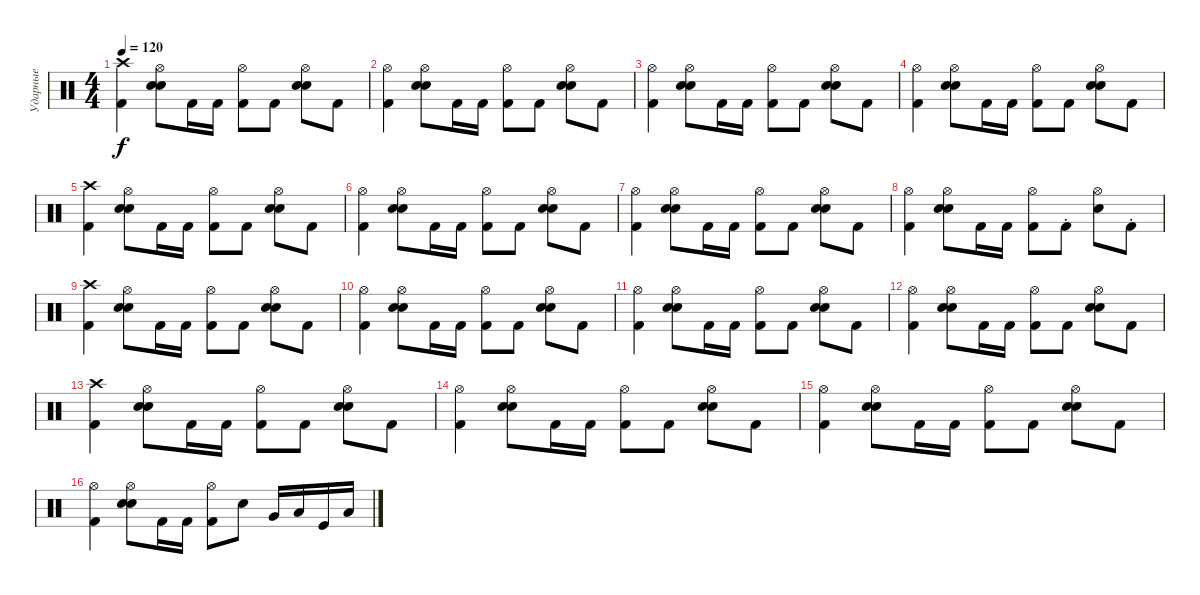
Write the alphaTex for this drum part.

\track ("Ударные" "Ударные") {instrument percussion}
\staff {score}
\articulation defaults
\ts (4 4)
\tempo 120
\clef neutral
\ks c
("Crash high (hit)" "Kick (hit) 2").4{dy f} ("Hi-Hat (open)" "Electric Snare (hit)" "Electric Snare (hit)").8 "Kick (hit) 2".16 "Kick (hit) 2".16 ("Kick (hit) 2" "Hi-Hat (open)").8 "Kick (hit) 2".8 ("Electric Snare (hit)" "Electric Snare (hit)" "Hi-Hat (open)").8 "Kick (hit) 2".8 |
("Hi-Hat (open)" "Kick (hit) 2").4 ("Hi-Hat (open)" "Electric Snare (hit)" "Electric Snare (hit)").8 "Kick (hit) 2".16 "Kick (hit) 2".16 ("Kick (hit) 2" "Hi-Hat (open)").8 "Kick (hit) 2".8 ("Electric Snare (hit)" "Electric Snare (hit)" "Hi-Hat (open)").8 "Kick (hit) 2".8 |
("Hi-Hat (open)" "Kick (hit) 2").4 ("Hi-Hat (open)" "Electric Snare (hit)" "Electric Snare (hit)").8 "Kick (hit) 2".16 "Kick (hit) 2".16 ("Kick (hit) 2" "Hi-Hat (open)").8 "Kick (hit) 2".8 ("Electric Snare (hit)" "Electric Snare (hit)" "Hi-Hat (open)").8 "Kick (hit) 2".8 |
("Hi-Hat (open)" "Kick (hit) 2").4 ("Hi-Hat (open)" "Electric Snare (hit)" "Electric Snare (hit)").8 "Kick (hit) 2".16 "Kick (hit) 2".16 ("Kick (hit) 2" "Hi-Hat (open)").8 "Kick (hit) 2".8 ("Electric Snare (hit)" "Electric Snare (hit)" "Hi-Hat (open)").8 "Kick (hit) 2".8 |
("Crash high (hit)" "Kick (hit) 2").4 ("Hi-Hat (open)" "Electric Snare (hit)" "Electric Snare (hit)").8 "Kick (hit) 2".16 "Kick (hit) 2".16 ("Kick (hit) 2" "Hi-Hat (open)").8 "Kick (hit) 2".8 ("Electric Snare (hit)" "Electric Snare (hit)" "Hi-Hat (open)").8 "Kick (hit) 2".8 |
("Hi-Hat (open)" "Kick (hit) 2").4 ("Hi-Hat (open)" "Electric Snare (hit)" "Electric Snare (hit)").8 "Kick (hit) 2".16 "Kick (hit) 2".16 ("Kick (hit) 2" "Hi-Hat (open)").8 "Kick (hit) 2".8 ("Electric Snare (hit)" "Electric Snare (hit)" "Hi-Hat (open)").8 "Kick (hit) 2".8 |
("Hi-Hat (open)" "Kick (hit) 2").4 ("Hi-Hat (open)" "Electric Snare (hit)" "Electric Snare (hit)").8 "Kick (hit) 2".16 "Kick (hit) 2".16 ("Kick (hit) 2" "Hi-Hat (open)").8 "Kick (hit) 2".8 ("Electric Snare (hit)" "Electric Snare (hit)" "Hi-Hat (open)").8 "Kick (hit) 2".8 |
("Hi-Hat (open)" "Kick (hit) 2").4 ("Hi-Hat (open)" "Electric Snare (hit)" "Electric Snare (hit)").8 "Kick (hit) 2".16 "Kick (hit) 2".16 ("Kick (hit) 2" "Hi-Hat (open)").8 "Kick (hit) 2"{st}.8 ("Electric Snare (hit)" "Hi-Hat (open)").8 "Kick (hit) 2"{st}.8 |
("Crash high (hit)" "Kick (hit) 2").4 ("Hi-Hat (open)" "Electric Snare (hit)" "Electric Snare (hit)").8 "Kick (hit) 2".16 "Kick (hit) 2".16 ("Kick (hit) 2" "Hi-Hat (open)").8 "Kick (hit) 2".8 ("Electric Snare (hit)" "Electric Snare (hit)" "Hi-Hat (open)").8 "Kick (hit) 2".8 |
("Hi-Hat (open)" "Kick (hit) 2").4 ("Hi-Hat (open)" "Electric Snare (hit)" "Electric Snare (hit)").8 "Kick (hit) 2".16 "Kick (hit) 2".16 ("Kick (hit) 2" "Hi-Hat (open)").8 "Kick (hit) 2".8 ("Electric Snare (hit)" "Electric Snare (hit)" "Hi-Hat (open)").8 "Kick (hit) 2".8 |
("Hi-Hat (open)" "Kick (hit) 2").4 ("Hi-Hat (open)" "Electric Snare (hit)" "Electric Snare (hit)").8 "Kick (hit) 2".16 "Kick (hit) 2".16 ("Kick (hit) 2" "Hi-Hat (open)").8 "Kick (hit) 2".8 ("Electric Snare (hit)" "Electric Snare (hit)" "Hi-Hat (open)").8 "Kick (hit) 2".8 |
("Hi-Hat (open)" "Kick (hit) 2").4 ("Hi-Hat (open)" "Electric Snare (hit)" "Electric Snare (hit)").8 "Kick (hit) 2".16 "Kick (hit) 2".16 ("Kick (hit) 2" "Hi-Hat (open)").8 "Kick (hit) 2".8 ("Electric Snare (hit)" "Electric Snare (hit)" "Hi-Hat (open)").8 "Kick (hit) 2".8 |
("Crash high (hit)" "Kick (hit) 2").4 ("Hi-Hat (open)" "Electric Snare (hit)" "Electric Snare (hit)").8 "Kick (hit) 2".16 "Kick (hit) 2".16 ("Kick (hit) 2" "Hi-Hat (open)").8 "Kick (hit) 2".8 ("Electric Snare (hit)" "Electric Snare (hit)" "Hi-Hat (open)").8 "Kick (hit) 2".8 |
("Hi-Hat (open)" "Kick (hit) 2").4 ("Hi-Hat (open)" "Electric Snare (hit)" "Electric Snare (hit)").8 "Kick (hit) 2".16 "Kick (hit) 2".16 ("Kick (hit) 2" "Hi-Hat (open)").8 "Kick (hit) 2".8 ("Electric Snare (hit)" "Electric Snare (hit)" "Hi-Hat (open)").8 "Kick (hit) 2".8 |
("Hi-Hat (open)" "Kick (hit) 2").4 ("Hi-Hat (open)" "Electric Snare (hit)" "Electric Snare (hit)").8 "Kick (hit) 2".16 "Kick (hit) 2".16 ("Kick (hit) 2" "Hi-Hat (open)").8 "Kick (hit) 2".8 ("Electric Snare (hit)" "Electric Snare (hit)" "Hi-Hat (open)").8 "Kick (hit) 2".8 |
("Hi-Hat (open)" "Kick (hit) 2").4 ("Hi-Hat (open)" "Electric Snare (hit)" "Electric Snare (hit)").8 "Kick (hit) 2".16 "Kick (hit) 2".16 ("Kick (hit) 2" "Hi-Hat (open)").8 "Electric Snare (hit)".8 "Very Low Tom (hit)".16 "Low Floor Tom (hit)".16 "Kick (hit)".16 "Low Floor Tom (hit)".16
